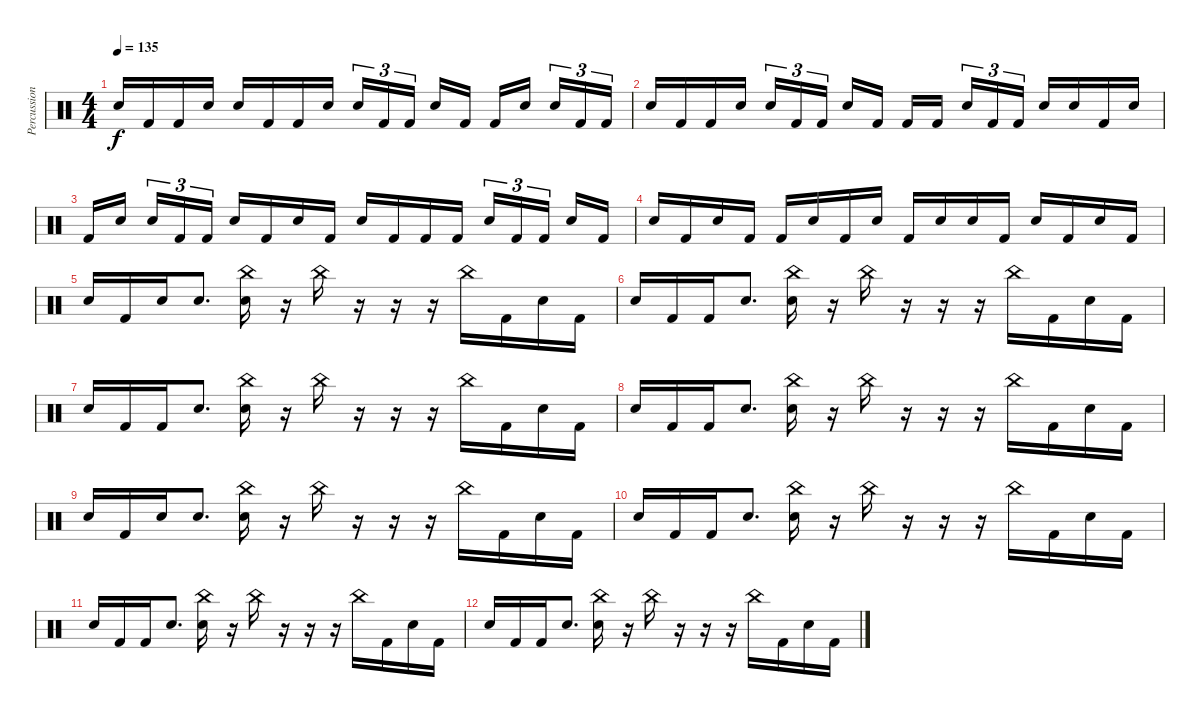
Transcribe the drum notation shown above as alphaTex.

\track ("Percussion" "Percussion") {instrument percussion}
\staff {score}
\articulation defaults
\ts (4 4)
\tempo 135
\clef neutral
\ks c "Snare (hit) 2".16{dy f} "Kick (hit) 2".16 "Kick (hit) 2".16 "Snare (hit) 2".16 "Snare (hit) 2".16 "Kick (hit) 2".16 "Kick (hit) 2".16 "Snare (hit) 2".16 "Snare (hit) 2".16{tu (3 2)} "Kick (hit) 2".16{tu (3 2)} "Kick (hit) 2".16{tu (3 2) beam splitsecondary} "Snare (hit) 2".16 "Kick (hit) 2".16 "Kick (hit) 2".16 "Snare (hit) 2".16{beam splitsecondary} "Snare (hit) 2".16{tu (3 2)} "Kick (hit) 2".16{tu (3 2)} "Kick (hit) 2".16{tu (3 2)}
|
"Snare (hit) 2".16 "Kick (hit) 2".16 "Kick (hit) 2".16 "Snare (hit) 2".16 "Snare (hit) 2".16{tu (3 2)} "Kick (hit) 2".16{tu (3 2)} "Kick (hit) 2".16{tu (3 2) beam splitsecondary} "Snare (hit) 2".16 "Kick (hit) 2".16 "Kick (hit) 2".16 "Kick (hit) 2".16{beam splitsecondary} "Snare (hit) 2".16{tu (3 2)} "Kick (hit) 2".16{tu (3 2)} "Kick (hit) 2".16{tu (3 2)} "Snare (hit) 2".16 "Snare (hit) 2".16 "Kick (hit) 2".16 "Snare (hit) 2".16 |
"Kick (hit) 2".16 "Snare (hit) 2".16{beam splitsecondary} "Snare (hit) 2".16{tu (3 2)} "Kick (hit) 2".16{tu (3 2)} "Kick (hit) 2".16{tu (3 2)} "Snare (hit) 2".16 "Kick (hit) 2".16 "Snare (hit) 2".16 "Kick (hit) 2".16 "Snare (hit) 2".16 "Kick (hit) 2".16 "Kick (hit) 2".16 "Kick (hit) 2".16 "Snare (hit) 2".16{tu (3 2)} "Kick (hit) 2".16{tu (3 2)} "Kick (hit) 2".16{tu (3 2) beam splitsecondary} "Snare (hit) 2".16 "Kick (hit) 2".16 |
"Snare (hit) 2".16 "Kick (hit) 2".16 "Snare (hit) 2".16 "Kick (hit) 2".16 "Kick (hit) 2".16 "Snare (hit) 2".16 "Kick (hit) 2".16 "Snare (hit) 2".16 "Kick (hit) 2".16 "Snare (hit) 2".16 "Snare (hit) 2".16 "Kick (hit) 2".16 "Snare (hit) 2".16 "Kick (hit) 2".16 "Snare (hit) 2".16 "Kick (hit) 2".16 |
"Snare (hit) 2".16 "Kick (hit) 2".16 "Snare (hit) 2".16 "Snare (hit) 2".8{d} ("Snare (hit) 2" "China (hit)").16 r.16 "China (hit)".16 r.16 r.16 r.16 "China (hit)".16 "Kick (hit) 2".16 "Snare (hit) 2".16 "Kick (hit) 2".16 |
"Snare (hit) 2".16 "Kick (hit) 2".16 "Kick (hit) 2".16 "Snare (hit) 2".8{d} ("Snare (hit) 2" "China (hit)").16 r.16 "China (hit)".16 r.16 r.16 r.16 "China (hit)".16 "Kick (hit) 2".16 "Snare (hit) 2".16 "Kick (hit) 2".16 |
"Snare (hit) 2".16 "Kick (hit) 2".16 "Kick (hit) 2".16 "Snare (hit) 2".8{d} ("Snare (hit) 2" "China (hit)").16 r.16 "China (hit)".16 r.16 r.16 r.16 "China (hit)".16 "Kick (hit) 2".16 "Snare (hit) 2".16 "Kick (hit) 2".16 |
"Snare (hit) 2".16 "Kick (hit) 2".16 "Kick (hit) 2".16 "Snare (hit) 2".8{d} ("Snare (hit) 2" "China (hit)").16 r.16 "China (hit)".16 r.16 r.16 r.16 "China (hit)".16 "Kick (hit) 2".16 "Snare (hit) 2".16 "Kick (hit) 2".16 |
"Snare (hit) 2".16 "Kick (hit) 2".16 "Snare (hit) 2".16 "Snare (hit) 2".8{d} ("Snare (hit) 2" "China (hit)").16 r.16 "China (hit)".16 r.16 r.16 r.16 "China (hit)".16 "Kick (hit) 2".16 "Snare (hit) 2".16 "Kick (hit) 2".16 |
"Snare (hit) 2".16 "Kick (hit) 2".16 "Kick (hit) 2".16 "Snare (hit) 2".8{d} ("Snare (hit) 2" "China (hit)").16 r.16 "China (hit)".16 r.16 r.16 r.16 "China (hit)".16 "Kick (hit) 2".16 "Snare (hit) 2".16 "Kick (hit) 2".16 |
"Snare (hit) 2".16 "Kick (hit) 2".16 "Kick (hit) 2".16 "Snare (hit) 2".8{d} ("Snare (hit) 2" "China (hit)").16 r.16 "China (hit)".16 r.16 r.16 r.16 "China (hit)".16 "Kick (hit) 2".16 "Snare (hit) 2".16 "Kick (hit) 2".16 |
"Snare (hit) 2".16 "Kick (hit) 2".16 "Kick (hit) 2".16 "Snare (hit) 2".8{d} ("Snare (hit) 2" "China (hit)").16 r.16 "China (hit)".16 r.16 r.16 r.16 "China (hit)".16 "Kick (hit) 2".16 "Snare (hit) 2".16 "Kick (hit) 2".16
